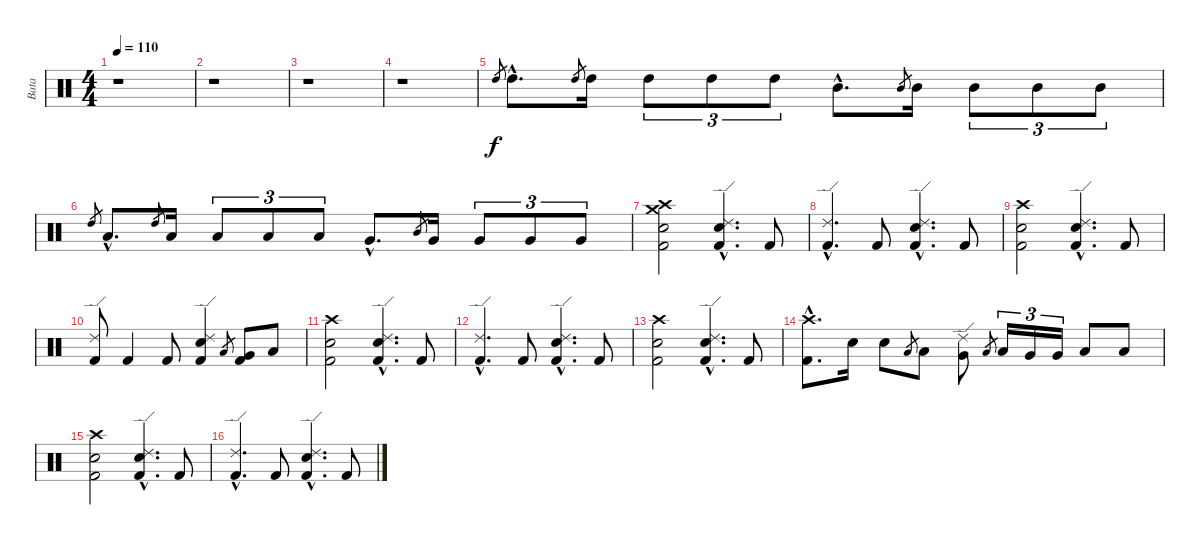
\track ("Bata" "Bata") {instrument percussion}
\staff {score}
\articulation defaults
\ts (4 4)
\tempo 110
\clef neutral
\ks c
r.1{dy f} |
r.1 |
r.1 |
r.1 |
"High Tom (hit)".8{gr} "High Tom (hit)"{hac}.8{d} "High Tom (hit)".8{gr} "High Tom (hit)".16 "High Tom (hit)".8{tu (3 2)} "High Tom (hit)".8{tu (3 2)} "High Tom (hit)".8{tu (3 2)} "Mid Tom (hit)"{hac}.8{d} "Mid Tom (hit)".8{gr} "Mid Tom (hit)".16 "Mid Tom (hit)".8{tu (3 2)} "Mid Tom (hit)".8{tu (3 2)} "Mid Tom (hit)".8{tu (3 2)} |
"High Tom (hit)".8{gr} "Low Tom (hit)"{hac}.8{d} "High Tom (hit)".8{gr} "Low Tom (hit)".16 "Low Tom (hit)".8{tu (3 2)} "Low Tom (hit)".8{tu (3 2)} "Low Tom (hit)".8{tu (3 2)} "Very Low Tom (hit)"{hac}.8{d} "Mid Tom (hit)".8{gr} "Very Low Tom (hit)".16 "Very Low Tom (hit)".8{tu (3 2)} "Very Low Tom (hit)".8{tu (3 2)} "Very Low Tom (hit)".8{tu (3 2)} |
("Crash high (hit)" "Crash medium (hit)" "Snare (hit) 2" "Kick (hit) 2").2 ("Ride (edge) 2"{hac} "Electric Snare (hit)"{hac} "Kick (hit) 2"{hac}).4{d} "Kick (hit) 2".8 |
("Ride (edge) 2"{hac} "Kick (hit) 2"{hac}).4{d} "Kick (hit) 2".8 ("Ride (edge) 2"{hac} "Electric Snare (hit)"{hac} "Kick (hit) 2"{hac}).4{d} "Kick (hit) 2".8 |
("Crash high (hit)" "Snare (hit) 2" "Kick (hit) 2").2 ("Ride (edge) 2"{hac} "Electric Snare (hit)"{hac} "Kick (hit) 2"{hac}).4{d} "Kick (hit) 2".8 |
("Ride (edge) 2" "Kick (hit) 2").8 "Kick (hit) 2".4 "Kick (hit) 2".8 ("Ride (edge) 2" "Electric Snare (hit)" "Kick (hit) 2").4 "Low Tom (hit)".8{gr} ("Very Low Tom (hit)" "Kick (hit) 2").8 "Low Floor Tom (hit)".8 |
("Crash high (hit)" "Snare (hit) 2" "Kick (hit) 2").2 ("Ride (edge) 2"{hac} "Electric Snare (hit)"{hac} "Kick (hit) 2"{hac}).4{d} "Kick (hit) 2".8 |
("Ride (edge) 2"{hac} "Kick (hit) 2"{hac}).4{d} "Kick (hit) 2".8 ("Ride (edge) 2"{hac} "Electric Snare (hit)"{hac} "Kick (hit) 2"{hac}).4{d} "Kick (hit) 2".8 |
("Crash high (hit)" "Snare (hit) 2" "Kick (hit) 2").2 ("Ride (edge) 2"{hac} "Electric Snare (hit)"{hac} "Kick (hit) 2"{hac}).4{d} "Kick (hit) 2".8 |
("Crash high (hit)"{hac} "Kick (hit) 2"{hac}).8{d} "Electric Snare (hit)".16 "Electric Snare (hit)".8 "Low Tom (hit)".8{gr} "Low Tom (hit)".8 ("Ride (edge) 2" "Very Low Tom (hit)").8 "Low Tom (hit)".8{gr} "Low Tom (hit)".16{tu (3 2)} "Very Low Tom (hit)".16{tu (3 2)} "Very Low Tom (hit)".16{tu (3 2)} "Low Floor Tom (hit)".8 "Low Floor Tom (hit)".8 |
("Crash high (hit)" "Snare (hit) 2" "Kick (hit) 2").2 ("Ride (edge) 2"{hac} "Electric Snare (hit)"{hac} "Kick (hit) 2"{hac}).4{d} "Kick (hit) 2".8 |
("Ride (edge) 2"{hac} "Kick (hit) 2"{hac}).4{d} "Kick (hit) 2".8 ("Ride (edge) 2"{hac} "Electric Snare (hit)"{hac} "Kick (hit) 2"{hac}).4{d} "Kick (hit) 2".8
